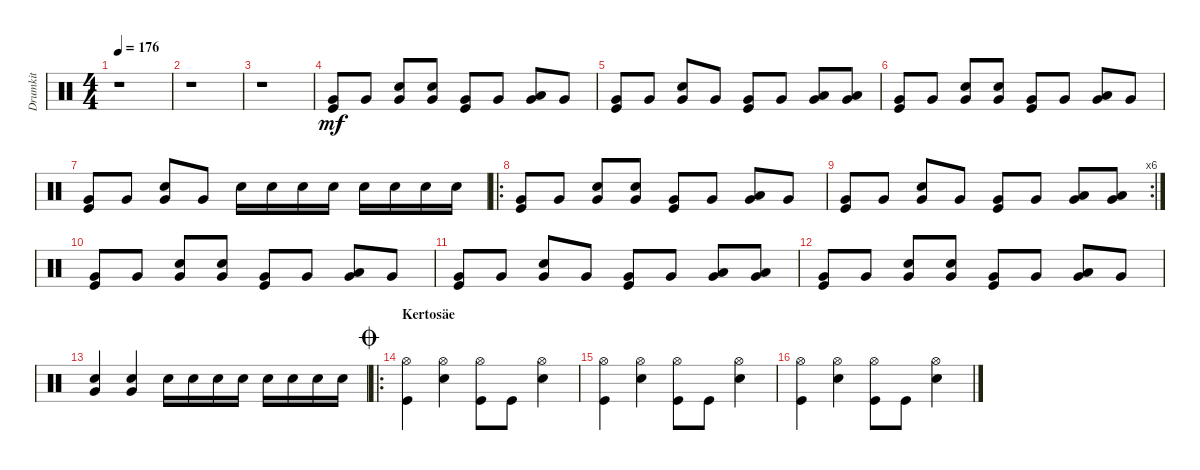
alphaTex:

\track ("Drumkit" "Drumkit") {instrument percussion}
\staff {score}
\articulation defaults
\ts (4 4)
\tempo 176
\clef neutral
\ks c
r.1{dy mf} |
r.1 |
r.1 |
("Kick (hit)" "Very Low Tom (hit)").8 "Very Low Tom (hit)".8 ("Snare (hit) 2" "Very Low Tom (hit)").8 ("Snare (hit) 2" "Very Low Tom (hit)").8 ("Kick (hit)" "Very Low Tom (hit)").8 "Very Low Tom (hit)".8 ("Very Low Tom (hit)" "Low Tom (hit)").8 "Very Low Tom (hit)".8 |
("Very Low Tom (hit)" "Kick (hit)").8 "Very Low Tom (hit)".8 ("Very Low Tom (hit)" "Snare (hit) 2").8 "Very Low Tom (hit)".8 ("Very Low Tom (hit)" "Kick (hit)").8 "Very Low Tom (hit)".8 ("Very Low Tom (hit)" "Low Tom (hit)").8 ("Very Low Tom (hit)" "Low Tom (hit)").8 |
("Kick (hit)" "Very Low Tom (hit)").8 "Very Low Tom (hit)".8 ("Snare (hit) 2" "Very Low Tom (hit)").8 ("Snare (hit) 2" "Very Low Tom (hit)").8 ("Kick (hit)" "Very Low Tom (hit)").8 "Very Low Tom (hit)".8 ("Very Low Tom (hit)" "Low Tom (hit)").8 "Very Low Tom (hit)".8 |
("Very Low Tom (hit)" "Kick (hit)").8 "Very Low Tom (hit)".8 ("Very Low Tom (hit)" "Snare (hit) 2").8 "Very Low Tom (hit)".8 "Snare (hit) 2".16 "Snare (hit) 2".16 "Snare (hit) 2".16 "Snare (hit) 2".16 "Snare (hit) 2".16 "Snare (hit) 2".16 "Snare (hit) 2".16 "Snare (hit) 2".16 |
\ro
("Kick (hit)" "Very Low Tom (hit)").8 "Very Low Tom (hit)".8 ("Snare (hit) 2" "Very Low Tom (hit)").8 ("Snare (hit) 2" "Very Low Tom (hit)").8 ("Kick (hit)" "Very Low Tom (hit)").8 "Very Low Tom (hit)".8 ("Very Low Tom (hit)" "Low Tom (hit)").8 "Very Low Tom (hit)".8 |
\rc 6
("Very Low Tom (hit)" "Kick (hit)").8 "Very Low Tom (hit)".8 ("Very Low Tom (hit)" "Snare (hit) 2").8 "Very Low Tom (hit)".8 ("Very Low Tom (hit)" "Kick (hit)").8 "Very Low Tom (hit)".8 ("Very Low Tom (hit)" "Low Tom (hit)").8 ("Very Low Tom (hit)" "Low Tom (hit)").8 |
("Kick (hit)" "Very Low Tom (hit)").8 "Very Low Tom (hit)".8 ("Snare (hit) 2" "Very Low Tom (hit)").8 ("Snare (hit) 2" "Very Low Tom (hit)").8 ("Kick (hit)" "Very Low Tom (hit)").8 "Very Low Tom (hit)".8 ("Very Low Tom (hit)" "Low Tom (hit)").8 "Very Low Tom (hit)".8 |
("Very Low Tom (hit)" "Kick (hit)").8 "Very Low Tom (hit)".8 ("Very Low Tom (hit)" "Snare (hit) 2").8 "Very Low Tom (hit)".8 ("Very Low Tom (hit)" "Kick (hit)").8 "Very Low Tom (hit)".8 ("Very Low Tom (hit)" "Low Tom (hit)").8 ("Very Low Tom (hit)" "Low Tom (hit)").8 |
("Kick (hit)" "Very Low Tom (hit)").8 "Very Low Tom (hit)".8 ("Snare (hit) 2" "Very Low Tom (hit)").8 ("Snare (hit) 2" "Very Low Tom (hit)").8 ("Kick (hit)" "Very Low Tom (hit)").8 "Very Low Tom (hit)".8 ("Very Low Tom (hit)" "Low Tom (hit)").8 "Very Low Tom (hit)".8 |
("Snare (hit) 2" "Very Low Tom (hit)").4 ("Very Low Tom (hit)" "Snare (hit) 2").4 "Snare (hit) 2".16 "Snare (hit) 2".16 "Snare (hit) 2".16 "Snare (hit) 2".16 "Snare (hit) 2".16 "Snare (hit) 2".16 "Snare (hit) 2".16 "Snare (hit) 2".16 |
\ro
\section ("" "Kertosäe")
\jump coda
("Kick (hit)" "Hi-Hat (open)").4 ("Hi-Hat (open)" "Snare (hit) 2").4 ("Kick (hit)" "Hi-Hat (open)").8 "Kick (hit)".8 ("Hi-Hat (open)" "Snare (hit) 2").4 |
("Kick (hit)" "Hi-Hat (open)").4 ("Hi-Hat (open)" "Snare (hit) 2").4 ("Kick (hit)" "Hi-Hat (open)").8 "Kick (hit)".8 ("Hi-Hat (open)" "Snare (hit) 2").4 |
("Kick (hit)" "Hi-Hat (open)").4 ("Hi-Hat (open)" "Snare (hit) 2").4 ("Kick (hit)" "Hi-Hat (open)").8 "Kick (hit)".8 ("Hi-Hat (open)" "Snare (hit) 2").4
